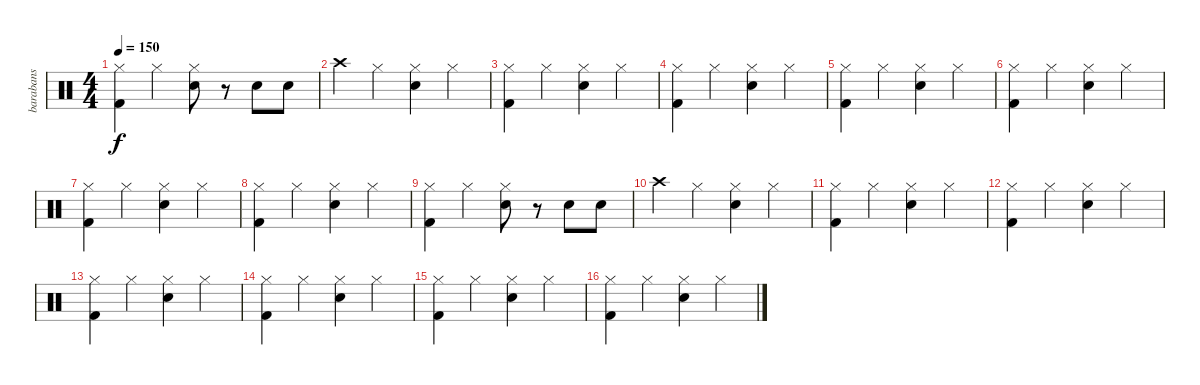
\track ("barabans" "barabans") {instrument percussion}
\staff {score}
\articulation defaults
\ts (4 4)
\tempo 150
\clef neutral
\ks c
("Hi-Hat (closed)" "Kick (hit) 2").4{dy f} "Hi-Hat (closed)".4 ("Hi-Hat (closed)" "Snare (hit) 2").8 r.8 "Snare (hit) 2".8 "Snare (hit) 2".8 |
"Crash high (hit)".4 "Hi-Hat (closed)".4 ("Hi-Hat (closed)" "Snare (hit) 2").4 "Hi-Hat (closed)".4 |
("Hi-Hat (closed)" "Kick (hit) 2").4 "Hi-Hat (closed)".4 ("Hi-Hat (closed)" "Snare (hit) 2").4 "Hi-Hat (closed)".4 |
("Hi-Hat (closed)" "Kick (hit) 2").4 "Hi-Hat (closed)".4 ("Hi-Hat (closed)" "Snare (hit) 2").4 "Hi-Hat (closed)".4 |
("Hi-Hat (closed)" "Kick (hit) 2").4 "Hi-Hat (closed)".4 ("Hi-Hat (closed)" "Snare (hit) 2").4 "Hi-Hat (closed)".4 |
("Hi-Hat (closed)" "Kick (hit) 2").4 "Hi-Hat (closed)".4 ("Hi-Hat (closed)" "Snare (hit) 2").4 "Hi-Hat (closed)".4 |
("Hi-Hat (closed)" "Kick (hit) 2").4 "Hi-Hat (closed)".4 ("Hi-Hat (closed)" "Snare (hit) 2").4 "Hi-Hat (closed)".4 |
("Hi-Hat (closed)" "Kick (hit) 2").4 "Hi-Hat (closed)".4 ("Hi-Hat (closed)" "Snare (hit) 2").4 "Hi-Hat (closed)".4 |
("Hi-Hat (closed)" "Kick (hit) 2").4 "Hi-Hat (closed)".4 ("Hi-Hat (closed)" "Snare (hit) 2").8 r.8 "Snare (hit) 2".8 "Snare (hit) 2".8 |
"Crash high (hit)".4 "Hi-Hat (closed)".4 ("Hi-Hat (closed)" "Snare (hit) 2").4 "Hi-Hat (closed)".4 |
("Hi-Hat (closed)" "Kick (hit) 2").4 "Hi-Hat (closed)".4 ("Hi-Hat (closed)" "Snare (hit) 2").4 "Hi-Hat (closed)".4 |
("Hi-Hat (closed)" "Kick (hit) 2").4 "Hi-Hat (closed)".4 ("Hi-Hat (closed)" "Snare (hit) 2").4 "Hi-Hat (closed)".4 |
("Hi-Hat (closed)" "Kick (hit) 2").4 "Hi-Hat (closed)".4 ("Hi-Hat (closed)" "Snare (hit) 2").4 "Hi-Hat (closed)".4 |
("Hi-Hat (closed)" "Kick (hit) 2").4 "Hi-Hat (closed)".4 ("Hi-Hat (closed)" "Snare (hit) 2").4 "Hi-Hat (closed)".4 |
("Hi-Hat (closed)" "Kick (hit) 2").4 "Hi-Hat (closed)".4 ("Hi-Hat (closed)" "Snare (hit) 2").4 "Hi-Hat (closed)".4 |
("Hi-Hat (closed)" "Kick (hit) 2").4 "Hi-Hat (closed)".4 ("Hi-Hat (closed)" "Snare (hit) 2").4 "Hi-Hat (closed)".4
